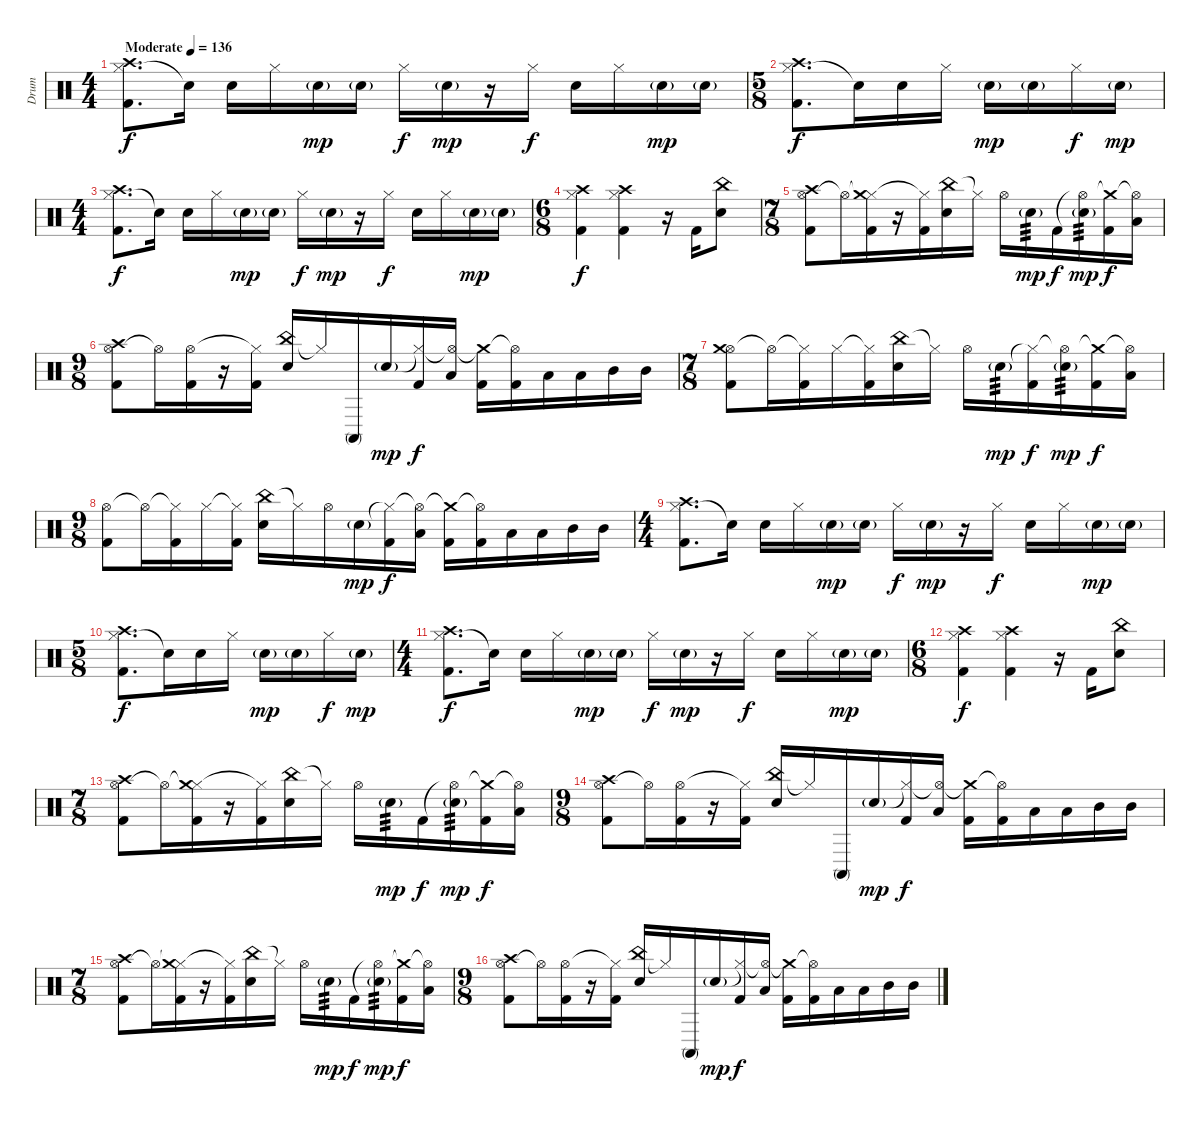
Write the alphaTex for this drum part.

\track ("Drum" "Drum") {instrument percussion}
\staff {score}
\articulation defaults
\ts (4 4)
\tempo (136 "Moderate")
\clef neutral
\ks c
("Hi-Hat (closed)" "Crash high (hit)" "Kick (hit) 2").8{d dy f} "Electric Snare (hit)"{t}.16 "Electric Snare (hit)".16 "Hi-Hat (closed)".16 "Electric Snare (hit)"{g}.16{dy mp} "Electric Snare (hit)"{g}.16 "Hi-Hat (closed)".16{dy f} "Electric Snare (hit)"{g}.16{dy mp} r.16 "Hi-Hat (closed)".16{dy f} "Electric Snare (hit)".16 "Hi-Hat (closed)".16 "Electric Snare (hit)"{g}.16{dy mp} "Electric Snare (hit)"{g}.16 |
\ts (5 8)
("Hi-Hat (closed)" "Crash high (hit)" "Kick (hit) 2").8{d dy f} "Electric Snare (hit)"{t}.16 "Electric Snare (hit)".16 "Hi-Hat (closed)".16 "Electric Snare (hit)"{g}.16{dy mp} "Electric Snare (hit)"{g}.16 "Hi-Hat (closed)".16{dy f} "Electric Snare (hit)"{g}.16{dy mp} |
\ts (4 4)
("Hi-Hat (closed)" "Crash high (hit)" "Kick (hit) 2").8{d dy f} "Electric Snare (hit)"{t}.16 "Electric Snare (hit)".16 "Hi-Hat (closed)".16 "Electric Snare (hit)"{g}.16{dy mp} "Electric Snare (hit)"{g}.16 "Hi-Hat (closed)".16{dy f} "Electric Snare (hit)"{g}.16{dy mp} r.16 "Hi-Hat (closed)".16{dy f} "Electric Snare (hit)".16 "Hi-Hat (closed)".16 "Electric Snare (hit)"{g}.16{dy mp} "Electric Snare (hit)"{g}.16 |
\ts (6 8)
("Hi-Hat (closed)" "Crash high (hit)" "Kick (hit) 2").4{dy f} ("Hi-Hat (closed)" "Crash high (hit)" "Kick (hit) 2").4 r.16 "Kick (hit) 2".16 ("China (hit)" "Electric Snare (hit)").8 |
\ts (7 8)
("Hi-Hat (open)" "Crash high (hit)" "Kick (hit) 2").8 "Hi-Hat (open)"{t}.16 ("Hi-Hat (closed)"{t} "Crash medium (hit)" "Kick (hit) 2").16 r.16 ("Hi-Hat (closed)"{t} "Kick (hit) 2").16 ("China (hit)" "Electric Snare (hit)").16 "Hi-Hat (closed)"{t}.16 "Hi-Hat (open)".16 "Electric Snare (hit)"{g}.16{tp 3 dy mp} "Kick (hit) 2".16{dy f} ("Hi-Hat (open)"{t} "Electric Snare (hit)"{g}).16{tp 3 dy mp} ("Crash medium (hit)"{t} "Kick (hit) 2").16{dy f} ("Hi-Hat (open)"{t} "Low Tom (hit)").16 |
\ts (9 8)
("Hi-Hat (open)" "Crash high (hit)" "Kick (hit) 2").8 "Hi-Hat (open)"{t}.16 ("Hi-Hat (open)" "Kick (hit) 2").16 r.16 ("Hi-Hat (closed)"{t} "Kick (hit) 2").16 ("China (hit)" "Electric Snare (hit)").16 "Hi-Hat (closed)"{t}.16 "Conga high (mute)".16 "Electric Snare (hit)"{g}.16{dy mp} ("Hi-Hat (closed)"{t} "Kick (hit) 2").16{dy f} ("Hi-Hat (open)"{t} "Low Floor Tom (hit)").16 ("Crash medium (hit)"{t} "Kick (hit) 2").16 ("Hi-Hat (open)"{t} "Kick (hit) 2").16 "Low Tom (hit)".16 "Low Tom (hit)".16 "Mid Tom (hit)".16 "Mid Tom (hit)".16 |
\ts (7 8)
("Hi-Hat (open)" "Crash medium (hit)" "Kick (hit) 2").8 "Hi-Hat (open)"{t}.16 ("Hi-Hat (closed)"{t} "Kick (hit) 2").16 "Hi-Hat (closed)".16 ("Hi-Hat (closed)"{t} "Kick (hit) 2").16 ("China (hit)" "Electric Snare (hit)").16 "Hi-Hat (closed)"{t}.16 "Hi-Hat (open)".16 "Electric Snare (hit)"{g}.16{tp 3 dy mp} ("Hi-Hat (closed)"{t} "Kick (hit) 2").16{dy f} ("Hi-Hat (open)"{t} "Electric Snare (hit)"{g}).16{tp 3 dy mp} ("Crash medium (hit)"{t} "Kick (hit) 2").16{dy f} ("Hi-Hat (open)"{t} "Low Tom (hit)").16 |
\ts (9 8)
("Hi-Hat (open)" "Kick (hit) 2").8 "Hi-Hat (open)"{t}.16 ("Hi-Hat (closed)"{t} "Kick (hit) 2").16 "Hi-Hat (closed)".16 ("Hi-Hat (closed)"{t} "Kick (hit) 2").16 ("China (hit)" "Electric Snare (hit)").16 "Hi-Hat (closed)"{t}.16 "Hi-Hat (open)".16 "Electric Snare (hit)"{g}.16{dy mp} ("Hi-Hat (closed)"{t} "Kick (hit) 2").16{dy f} ("Hi-Hat (open)"{t} "Low Floor Tom (hit)").16 ("Crash medium (hit)"{t} "Kick (hit) 2").16 ("Hi-Hat (open)"{t} "Kick (hit) 2").16 "Low Tom (hit)".16 "Low Tom (hit)".16 "Mid Tom (hit)".16 "Mid Tom (hit)".16 |
\ts (4 4)
("Hi-Hat (closed)" "Crash high (hit)" "Kick (hit) 2").8{d} "Electric Snare (hit)"{t}.16 "Electric Snare (hit)".16 "Hi-Hat (closed)".16 "Electric Snare (hit)"{g}.16{dy mp} "Electric Snare (hit)"{g}.16 "Hi-Hat (closed)".16{dy f} "Electric Snare (hit)"{g}.16{dy mp} r.16 "Hi-Hat (closed)".16{dy f} "Electric Snare (hit)".16 "Hi-Hat (closed)".16 "Electric Snare (hit)"{g}.16{dy mp} "Electric Snare (hit)"{g}.16 |
\ts (5 8)
("Hi-Hat (closed)" "Crash high (hit)" "Kick (hit) 2").8{d dy f} "Electric Snare (hit)"{t}.16 "Electric Snare (hit)".16 "Hi-Hat (closed)".16 "Electric Snare (hit)"{g}.16{dy mp} "Electric Snare (hit)"{g}.16 "Hi-Hat (closed)".16{dy f} "Electric Snare (hit)"{g}.16{dy mp} |
\ts (4 4)
("Hi-Hat (closed)" "Crash high (hit)" "Kick (hit) 2").8{d dy f} "Electric Snare (hit)"{t}.16 "Electric Snare (hit)".16 "Hi-Hat (closed)".16 "Electric Snare (hit)"{g}.16{dy mp} "Electric Snare (hit)"{g}.16 "Hi-Hat (closed)".16{dy f} "Electric Snare (hit)"{g}.16{dy mp} r.16 "Hi-Hat (closed)".16{dy f} "Electric Snare (hit)".16 "Hi-Hat (closed)".16 "Electric Snare (hit)"{g}.16{dy mp} "Electric Snare (hit)"{g}.16 |
\ts (6 8)
("Hi-Hat (closed)" "Crash high (hit)" "Kick (hit) 2").4{dy f} ("Hi-Hat (closed)" "Crash high (hit)" "Kick (hit) 2").4 r.16 "Kick (hit) 2".16 ("China (hit)" "Electric Snare (hit)").8 |
\ts (7 8)
("Hi-Hat (open)" "Crash high (hit)" "Kick (hit) 2").8 "Hi-Hat (open)"{t}.16 ("Hi-Hat (closed)"{t} "Crash medium (hit)" "Kick (hit) 2").16 r.16 ("Hi-Hat (closed)"{t} "Kick (hit) 2").16 ("China (hit)" "Electric Snare (hit)").16 "Hi-Hat (closed)"{t}.16 "Hi-Hat (open)".16 "Electric Snare (hit)"{g}.16{tp 3 dy mp} "Kick (hit) 2".16{dy f} ("Hi-Hat (open)"{t} "Electric Snare (hit)"{g}).16{tp 3 dy mp} ("Crash medium (hit)"{t} "Kick (hit) 2").16{dy f} ("Hi-Hat (open)"{t} "Low Tom (hit)").16 |
\ts (9 8)
("Hi-Hat (open)" "Crash high (hit)" "Kick (hit) 2").8 "Hi-Hat (open)"{t}.16 ("Hi-Hat (open)" "Kick (hit) 2").16 r.16 ("Hi-Hat (closed)"{t} "Kick (hit) 2").16 ("China (hit)" "Electric Snare (hit)").16 "Hi-Hat (closed)"{t}.16 "Conga high (mute)".16 "Electric Snare (hit)"{g}.16{dy mp} ("Hi-Hat (closed)"{t} "Kick (hit) 2").16{dy f} ("Hi-Hat (open)"{t} "Low Floor Tom (hit)").16 ("Crash medium (hit)"{t} "Kick (hit) 2").16 ("Hi-Hat (open)"{t} "Kick (hit) 2").16 "Low Tom (hit)".16 "Low Tom (hit)".16 "Mid Tom (hit)".16 "Mid Tom (hit)".16 |
\ts (7 8)
("Hi-Hat (open)" "Crash high (hit)" "Kick (hit) 2").8 "Hi-Hat (open)"{t}.16 ("Hi-Hat (closed)"{t} "Crash medium (hit)" "Kick (hit) 2").16 r.16 ("Hi-Hat (closed)"{t} "Kick (hit) 2").16 ("China (hit)" "Electric Snare (hit)").16 "Hi-Hat (closed)"{t}.16 "Hi-Hat (open)".16 "Electric Snare (hit)"{g}.16{tp 3 dy mp} "Kick (hit) 2".16{dy f} ("Hi-Hat (open)"{t} "Electric Snare (hit)"{g}).16{tp 3 dy mp} ("Crash medium (hit)"{t} "Kick (hit) 2").16{dy f} ("Hi-Hat (open)"{t} "Low Tom (hit)").16 |
\ts (9 8)
("Hi-Hat (open)" "Crash high (hit)" "Kick (hit) 2").8 "Hi-Hat (open)"{t}.16 ("Hi-Hat (open)" "Kick (hit) 2").16 r.16 ("Hi-Hat (closed)"{t} "Kick (hit) 2").16 ("China (hit)" "Electric Snare (hit)").16 "Hi-Hat (closed)"{t}.16 "Conga high (mute)".16 "Electric Snare (hit)"{g}.16{dy mp} ("Hi-Hat (closed)"{t} "Kick (hit) 2").16{dy f} ("Hi-Hat (open)"{t} "Low Floor Tom (hit)").16 ("Crash medium (hit)"{t} "Kick (hit) 2").16 ("Hi-Hat (open)"{t} "Kick (hit) 2").16 "Low Tom (hit)".16 "Low Tom (hit)".16 "Mid Tom (hit)".16 "Mid Tom (hit)".16
